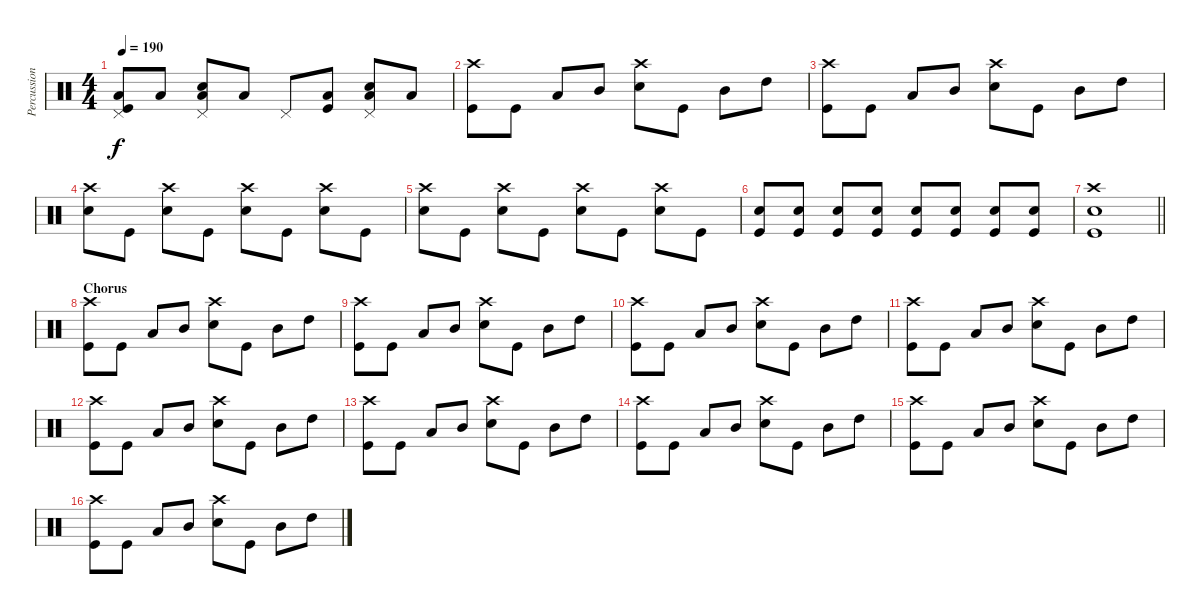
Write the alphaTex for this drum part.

\track ("Percussion" "Percussion") {instrument percussion}
\staff {score}
\articulation defaults
\ts (4 4)
\tempo 190
\clef neutral
\ks c
("Pedal Hi-Hat (hit)" "Low Tom (hit)" "Kick (hit)").8{dy f} "Low Tom (hit)".8 ("Pedal Hi-Hat (hit)" "Snare (hit) 2" "Low Tom (hit)").8 "Low Tom (hit)".8 "Pedal Hi-Hat (hit)".8 ("Low Tom (hit)" "Kick (hit)").8 ("Pedal Hi-Hat (hit)" "Snare (hit) 2" "Low Tom (hit)").8 "Low Tom (hit)".8 |
("Crash high (hit)" "Kick (hit)").8 "Kick (hit)".8 "Low Tom (hit)".8 "Mid Tom (hit)".8 ("Crash high (hit)" "Snare (hit) 2").8 "Kick (hit)".8 "Mid Tom (hit)".8 "High Tom (hit)".8 |
("Crash high (hit)" "Kick (hit)").8 "Kick (hit)".8 "Low Tom (hit)".8 "Mid Tom (hit)".8 ("Crash high (hit)" "Snare (hit) 2").8 "Kick (hit)".8 "Mid Tom (hit)".8 "High Tom (hit)".8 |
("Crash high (hit)" "Snare (hit) 2").8 "Kick (hit)".8 ("Crash high (hit)" "Snare (hit) 2").8 "Kick (hit)".8 ("Crash high (hit)" "Snare (hit) 2").8 "Kick (hit)".8 ("Crash high (hit)" "Snare (hit) 2").8 "Kick (hit)".8 |
("Crash high (hit)" "Snare (hit) 2").8 "Kick (hit)".8 ("Crash high (hit)" "Snare (hit) 2").8 "Kick (hit)".8 ("Crash high (hit)" "Snare (hit) 2").8 "Kick (hit)".8 ("Crash high (hit)" "Snare (hit) 2").8 "Kick (hit)".8 |
("Snare (hit) 2" "Kick (hit)").8 ("Snare (hit) 2" "Kick (hit)").8 ("Snare (hit) 2" "Kick (hit)").8 ("Snare (hit) 2" "Kick (hit)").8 ("Snare (hit) 2" "Kick (hit)").8 ("Snare (hit) 2" "Kick (hit)").8 ("Snare (hit) 2" "Kick (hit)").8 ("Snare (hit) 2" "Kick (hit)").8 |
\barLineRight lightlight
("Crash high (hit)" "Snare (hit) 2" "Kick (hit)").1 |
\section ("" "Chorus")
("Crash high (hit)" "Kick (hit)").8 "Kick (hit)".8 "Low Tom (hit)".8 "Mid Tom (hit)".8 ("Crash high (hit)" "Snare (hit) 2").8 "Kick (hit)".8 "Mid Tom (hit)".8 "High Tom (hit)".8 |
("Crash high (hit)" "Kick (hit)").8 "Kick (hit)".8 "Low Tom (hit)".8 "Mid Tom (hit)".8 ("Crash high (hit)" "Snare (hit) 2").8 "Kick (hit)".8 "Mid Tom (hit)".8 "High Tom (hit)".8 |
("Crash high (hit)" "Kick (hit)").8 "Kick (hit)".8 "Low Tom (hit)".8 "Mid Tom (hit)".8 ("Crash high (hit)" "Snare (hit) 2").8 "Kick (hit)".8 "Mid Tom (hit)".8 "High Tom (hit)".8 |
("Crash high (hit)" "Kick (hit)").8 "Kick (hit)".8 "Low Tom (hit)".8 "Mid Tom (hit)".8 ("Crash high (hit)" "Snare (hit) 2").8 "Kick (hit)".8 "Mid Tom (hit)".8 "High Tom (hit)".8 |
("Crash high (hit)" "Kick (hit)").8 "Kick (hit)".8 "Low Tom (hit)".8 "Mid Tom (hit)".8 ("Crash high (hit)" "Snare (hit) 2").8 "Kick (hit)".8 "Mid Tom (hit)".8 "High Tom (hit)".8 |
("Crash high (hit)" "Kick (hit)").8 "Kick (hit)".8 "Low Tom (hit)".8 "Mid Tom (hit)".8 ("Crash high (hit)" "Snare (hit) 2").8 "Kick (hit)".8 "Mid Tom (hit)".8 "High Tom (hit)".8 |
("Crash high (hit)" "Kick (hit)").8 "Kick (hit)".8 "Low Tom (hit)".8 "Mid Tom (hit)".8 ("Crash high (hit)" "Snare (hit) 2").8 "Kick (hit)".8 "Mid Tom (hit)".8 "High Tom (hit)".8 |
("Crash high (hit)" "Kick (hit)").8 "Kick (hit)".8 "Low Tom (hit)".8 "Mid Tom (hit)".8 ("Crash high (hit)" "Snare (hit) 2").8 "Kick (hit)".8 "Mid Tom (hit)".8 "High Tom (hit)".8 |
("Crash high (hit)" "Kick (hit)").8 "Kick (hit)".8 "Low Tom (hit)".8 "Mid Tom (hit)".8 ("Crash high (hit)" "Snare (hit) 2").8 "Kick (hit)".8 "Mid Tom (hit)".8 "High Tom (hit)".8
